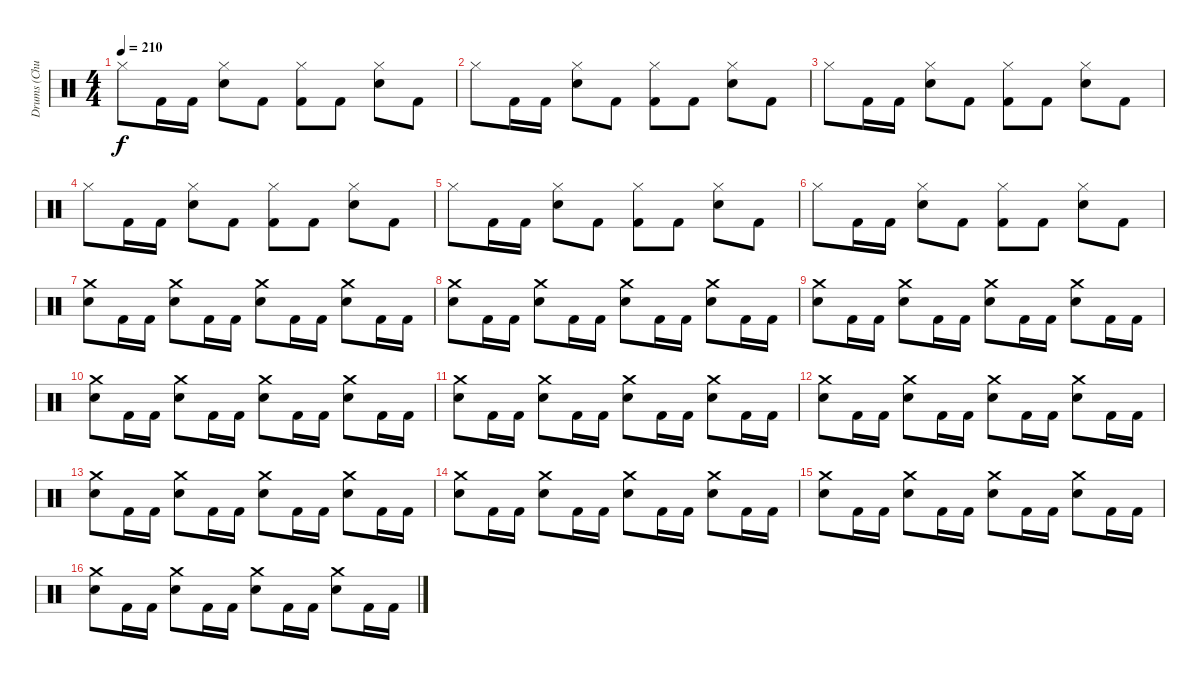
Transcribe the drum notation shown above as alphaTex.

\track ("Drums (Chuck Behler)" "Drums (Chu") {instrument percussion}
\staff {score}
\articulation defaults
\ts (4 4)
\tempo 210
\clef neutral
\ks c "Hi-Hat (closed)".8{dy f} "Kick (hit) 2".16 "Kick (hit) 2".16
("Hi-Hat (closed)" "Snare (hit) 2").8 "Kick (hit) 2".8 ("Hi-Hat (closed)" "Kick (hit) 2").8 "Kick (hit) 2".8 ("Hi-Hat (closed)" "Snare (hit) 2").8 "Kick (hit) 2".8 |
"Hi-Hat (closed)".8 "Kick (hit) 2".16 "Kick (hit) 2".16 ("Hi-Hat (closed)" "Snare (hit) 2").8 "Kick (hit) 2".8 ("Hi-Hat (closed)" "Kick (hit) 2").8 "Kick (hit) 2".8 ("Hi-Hat (closed)" "Snare (hit) 2").8 "Kick (hit) 2".8 |
"Hi-Hat (closed)".8 "Kick (hit) 2".16 "Kick (hit) 2".16 ("Hi-Hat (closed)" "Snare (hit) 2").8 "Kick (hit) 2".8 ("Hi-Hat (closed)" "Kick (hit) 2").8 "Kick (hit) 2".8 ("Hi-Hat (closed)" "Snare (hit) 2").8 "Kick (hit) 2".8 |
"Hi-Hat (closed)".8 "Kick (hit) 2".16 "Kick (hit) 2".16 ("Hi-Hat (closed)" "Snare (hit) 2").8 "Kick (hit) 2".8 ("Hi-Hat (closed)" "Kick (hit) 2").8 "Kick (hit) 2".8 ("Hi-Hat (closed)" "Snare (hit) 2").8 "Kick (hit) 2".8 |
"Hi-Hat (closed)".8 "Kick (hit) 2".16 "Kick (hit) 2".16 ("Hi-Hat (closed)" "Snare (hit) 2").8 "Kick (hit) 2".8 ("Hi-Hat (closed)" "Kick (hit) 2").8 "Kick (hit) 2".8 ("Hi-Hat (closed)" "Snare (hit) 2").8 "Kick (hit) 2".8 |
"Hi-Hat (closed)".8 "Kick (hit) 2".16 "Kick (hit) 2".16 ("Hi-Hat (closed)" "Snare (hit) 2").8 "Kick (hit) 2".8 ("Hi-Hat (closed)" "Kick (hit) 2").8 "Kick (hit) 2".8 ("Hi-Hat (closed)" "Snare (hit) 2").8 "Kick (hit) 2".8 |
("Crash medium (hit)" "Snare (hit) 2").8 "Kick (hit) 2".16 "Kick (hit) 2".16 ("Crash medium (hit)" "Snare (hit) 2").8 "Kick (hit) 2".16 "Kick (hit) 2".16 ("Crash medium (hit)" "Snare (hit) 2").8 "Kick (hit) 2".16 "Kick (hit) 2".16 ("Crash medium (hit)" "Snare (hit) 2").8 "Kick (hit) 2".16 "Kick (hit) 2".16 |
("Crash medium (hit)" "Snare (hit) 2").8 "Kick (hit) 2".16 "Kick (hit) 2".16 ("Crash medium (hit)" "Snare (hit) 2").8 "Kick (hit) 2".16 "Kick (hit) 2".16 ("Crash medium (hit)" "Snare (hit) 2").8 "Kick (hit) 2".16 "Kick (hit) 2".16 ("Crash medium (hit)" "Snare (hit) 2").8 "Kick (hit) 2".16 "Kick (hit) 2".16 |
("Crash medium (hit)" "Snare (hit) 2").8 "Kick (hit) 2".16 "Kick (hit) 2".16 ("Crash medium (hit)" "Snare (hit) 2").8 "Kick (hit) 2".16 "Kick (hit) 2".16 ("Crash medium (hit)" "Snare (hit) 2").8 "Kick (hit) 2".16 "Kick (hit) 2".16 ("Crash medium (hit)" "Snare (hit) 2").8 "Kick (hit) 2".16 "Kick (hit) 2".16 |
("Crash medium (hit)" "Snare (hit) 2").8 "Kick (hit) 2".16 "Kick (hit) 2".16 ("Crash medium (hit)" "Snare (hit) 2").8 "Kick (hit) 2".16 "Kick (hit) 2".16 ("Crash medium (hit)" "Snare (hit) 2").8 "Kick (hit) 2".16 "Kick (hit) 2".16 ("Crash medium (hit)" "Snare (hit) 2").8 "Kick (hit) 2".16 "Kick (hit) 2".16 |
("Crash medium (hit)" "Snare (hit) 2").8 "Kick (hit) 2".16 "Kick (hit) 2".16 ("Crash medium (hit)" "Snare (hit) 2").8 "Kick (hit) 2".16 "Kick (hit) 2".16 ("Crash medium (hit)" "Snare (hit) 2").8 "Kick (hit) 2".16 "Kick (hit) 2".16 ("Crash medium (hit)" "Snare (hit) 2").8 "Kick (hit) 2".16 "Kick (hit) 2".16 |
("Crash medium (hit)" "Snare (hit) 2").8 "Kick (hit) 2".16 "Kick (hit) 2".16 ("Crash medium (hit)" "Snare (hit) 2").8 "Kick (hit) 2".16 "Kick (hit) 2".16 ("Crash medium (hit)" "Snare (hit) 2").8 "Kick (hit) 2".16 "Kick (hit) 2".16 ("Crash medium (hit)" "Snare (hit) 2").8 "Kick (hit) 2".16 "Kick (hit) 2".16 |
("Crash medium (hit)" "Snare (hit) 2").8 "Kick (hit) 2".16 "Kick (hit) 2".16 ("Crash medium (hit)" "Snare (hit) 2").8 "Kick (hit) 2".16 "Kick (hit) 2".16 ("Crash medium (hit)" "Snare (hit) 2").8 "Kick (hit) 2".16 "Kick (hit) 2".16 ("Crash medium (hit)" "Snare (hit) 2").8 "Kick (hit) 2".16 "Kick (hit) 2".16 |
("Crash medium (hit)" "Snare (hit) 2").8 "Kick (hit) 2".16 "Kick (hit) 2".16 ("Crash medium (hit)" "Snare (hit) 2").8 "Kick (hit) 2".16 "Kick (hit) 2".16 ("Crash medium (hit)" "Snare (hit) 2").8 "Kick (hit) 2".16 "Kick (hit) 2".16 ("Crash medium (hit)" "Snare (hit) 2").8 "Kick (hit) 2".16 "Kick (hit) 2".16 |
("Crash medium (hit)" "Snare (hit) 2").8 "Kick (hit) 2".16 "Kick (hit) 2".16 ("Crash medium (hit)" "Snare (hit) 2").8 "Kick (hit) 2".16 "Kick (hit) 2".16 ("Crash medium (hit)" "Snare (hit) 2").8 "Kick (hit) 2".16 "Kick (hit) 2".16 ("Crash medium (hit)" "Snare (hit) 2").8 "Kick (hit) 2".16 "Kick (hit) 2".16 |
("Crash medium (hit)" "Snare (hit) 2").8 "Kick (hit) 2".16 "Kick (hit) 2".16 ("Crash medium (hit)" "Snare (hit) 2").8 "Kick (hit) 2".16 "Kick (hit) 2".16 ("Crash medium (hit)" "Snare (hit) 2").8 "Kick (hit) 2".16 "Kick (hit) 2".16 ("Crash medium (hit)" "Snare (hit) 2").8 "Kick (hit) 2".16 "Kick (hit) 2".16
